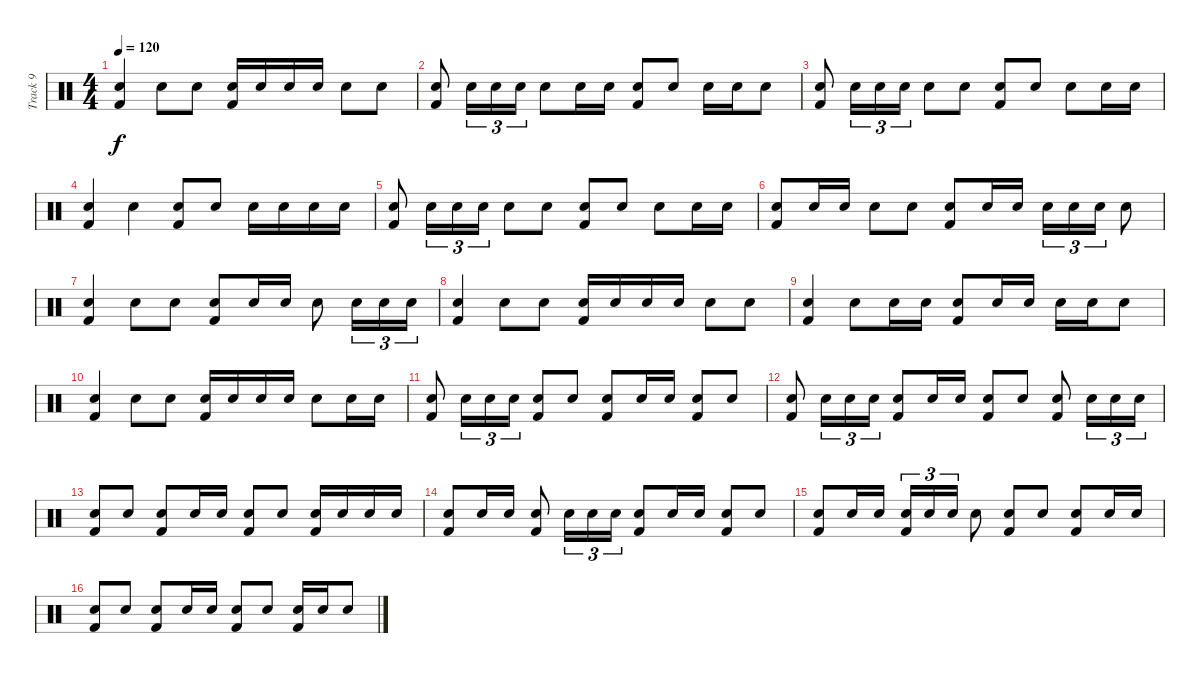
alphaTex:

\track ("Track 9" "Track 9") {instrument percussion}
\staff {score}
\articulation defaults
\ts (4 4)
\tempo 120
\clef neutral
\ks c
("Electric Snare (hit)" "Kick (hit) 2").4{dy f} "Electric Snare (hit)".8 "Electric Snare (hit)".8 ("Electric Snare (hit)" "Kick (hit) 2").16 "Electric Snare (hit)".16 "Electric Snare (hit)".16 "Electric Snare (hit)".16 "Electric Snare (hit)".8 "Electric Snare (hit)".8 |
("Electric Snare (hit)" "Kick (hit) 2").8 "Electric Snare (hit)".16{tu (3 2)} "Electric Snare (hit)".16{tu (3 2)} "Electric Snare (hit)".16{tu (3 2)} "Electric Snare (hit)".8 "Electric Snare (hit)".16 "Electric Snare (hit)".16 ("Electric Snare (hit)" "Kick (hit) 2").8 "Electric Snare (hit)".8 "Electric Snare (hit)".16 "Electric Snare (hit)".16 "Electric Snare (hit)".8 |
("Electric Snare (hit)" "Kick (hit) 2").8 "Electric Snare (hit)".16{tu (3 2)} "Electric Snare (hit)".16{tu (3 2)} "Electric Snare (hit)".16{tu (3 2)} "Electric Snare (hit)".8 "Electric Snare (hit)".8 ("Electric Snare (hit)" "Kick (hit) 2").8 "Electric Snare (hit)".8 "Electric Snare (hit)".8 "Electric Snare (hit)".16 "Electric Snare (hit)".16 |
("Electric Snare (hit)" "Kick (hit) 2").4 "Electric Snare (hit)".4 ("Electric Snare (hit)" "Kick (hit) 2").8 "Electric Snare (hit)".8 "Electric Snare (hit)".16 "Electric Snare (hit)".16 "Electric Snare (hit)".16 "Electric Snare (hit)".16 |
("Electric Snare (hit)" "Kick (hit) 2").8 "Electric Snare (hit)".16{tu (3 2)} "Electric Snare (hit)".16{tu (3 2)} "Electric Snare (hit)".16{tu (3 2)} "Electric Snare (hit)".8 "Electric Snare (hit)".8 ("Electric Snare (hit)" "Kick (hit) 2").8 "Electric Snare (hit)".8 "Electric Snare (hit)".8 "Electric Snare (hit)".16 "Electric Snare (hit)".16 |
("Electric Snare (hit)" "Kick (hit) 2").8 "Electric Snare (hit)".16 "Electric Snare (hit)".16 "Electric Snare (hit)".8 "Electric Snare (hit)".8 ("Electric Snare (hit)" "Kick (hit) 2").8 "Electric Snare (hit)".16 "Electric Snare (hit)".16 "Electric Snare (hit)".16{tu (3 2)} "Electric Snare (hit)".16{tu (3 2)} "Electric Snare (hit)".16{tu (3 2)} "Electric Snare (hit)".8 |
("Electric Snare (hit)" "Kick (hit) 2").4 "Electric Snare (hit)".8 "Electric Snare (hit)".8 ("Electric Snare (hit)" "Kick (hit) 2").8 "Electric Snare (hit)".16 "Electric Snare (hit)".16 "Electric Snare (hit)".8 "Electric Snare (hit)".16{tu (3 2)} "Electric Snare (hit)".16{tu (3 2)} "Electric Snare (hit)".16{tu (3 2)} |
("Electric Snare (hit)" "Kick (hit) 2").4 "Electric Snare (hit)".8 "Electric Snare (hit)".8 ("Electric Snare (hit)" "Kick (hit) 2").16 "Electric Snare (hit)".16 "Electric Snare (hit)".16 "Electric Snare (hit)".16 "Electric Snare (hit)".8 "Electric Snare (hit)".8 |
("Electric Snare (hit)" "Kick (hit) 2").4 "Electric Snare (hit)".8 "Electric Snare (hit)".16 "Electric Snare (hit)".16 ("Electric Snare (hit)" "Kick (hit) 2").8 "Electric Snare (hit)".16 "Electric Snare (hit)".16 "Electric Snare (hit)".16 "Electric Snare (hit)".16 "Electric Snare (hit)".8 |
("Electric Snare (hit)" "Kick (hit) 2").4 "Electric Snare (hit)".8 "Electric Snare (hit)".8 ("Electric Snare (hit)" "Kick (hit) 2").16 "Electric Snare (hit)".16 "Electric Snare (hit)".16 "Electric Snare (hit)".16 "Electric Snare (hit)".8 "Electric Snare (hit)".16 "Electric Snare (hit)".16 |
("Electric Snare (hit)" "Kick (hit) 2").8 "Electric Snare (hit)".16{tu (3 2)} "Electric Snare (hit)".16{tu (3 2)} "Electric Snare (hit)".16{tu (3 2)} ("Electric Snare (hit)" "Kick (hit) 2").8 "Electric Snare (hit)".8 ("Electric Snare (hit)" "Kick (hit) 2").8 "Electric Snare (hit)".16 "Electric Snare (hit)".16 ("Electric Snare (hit)" "Kick (hit) 2").8 "Electric Snare (hit)".8 |
("Electric Snare (hit)" "Kick (hit) 2").8 "Electric Snare (hit)".16{tu (3 2)} "Electric Snare (hit)".16{tu (3 2)} "Electric Snare (hit)".16{tu (3 2)} ("Electric Snare (hit)" "Kick (hit) 2").8 "Electric Snare (hit)".16 "Electric Snare (hit)".16 ("Electric Snare (hit)" "Kick (hit) 2").8 "Electric Snare (hit)".8 ("Electric Snare (hit)" "Kick (hit) 2").8 "Electric Snare (hit)".16{tu (3 2)} "Electric Snare (hit)".16{tu (3 2)} "Electric Snare (hit)".16{tu (3 2)} |
("Electric Snare (hit)" "Kick (hit) 2").8 "Electric Snare (hit)".8 ("Electric Snare (hit)" "Kick (hit) 2").8 "Electric Snare (hit)".16 "Electric Snare (hit)".16 ("Electric Snare (hit)" "Kick (hit) 2").8 "Electric Snare (hit)".8 ("Electric Snare (hit)" "Kick (hit) 2").16 "Electric Snare (hit)".16 "Electric Snare (hit)".16 "Electric Snare (hit)".16 |
("Electric Snare (hit)" "Kick (hit) 2").8 "Electric Snare (hit)".16 "Electric Snare (hit)".16 ("Electric Snare (hit)" "Kick (hit) 2").8 "Electric Snare (hit)".16{tu (3 2)} "Electric Snare (hit)".16{tu (3 2)} "Electric Snare (hit)".16{tu (3 2)} ("Electric Snare (hit)" "Kick (hit) 2").8 "Electric Snare (hit)".16 "Electric Snare (hit)".16 ("Electric Snare (hit)" "Kick (hit) 2").8 "Electric Snare (hit)".8 |
("Electric Snare (hit)" "Kick (hit) 2").8 "Electric Snare (hit)".16 "Electric Snare (hit)".16 ("Electric Snare (hit)" "Kick (hit) 2").16{tu (3 2)} "Electric Snare (hit)".16{tu (3 2)} "Electric Snare (hit)".16{tu (3 2)} "Electric Snare (hit)".8 ("Electric Snare (hit)" "Kick (hit) 2").8 "Electric Snare (hit)".8 ("Electric Snare (hit)" "Kick (hit) 2").8 "Electric Snare (hit)".16 "Electric Snare (hit)".16 |
("Electric Snare (hit)" "Kick (hit) 2").8 "Electric Snare (hit)".8 ("Electric Snare (hit)" "Kick (hit) 2").8 "Electric Snare (hit)".16 "Electric Snare (hit)".16 ("Electric Snare (hit)" "Kick (hit) 2").8 "Electric Snare (hit)".8 ("Electric Snare (hit)" "Kick (hit) 2").16 "Electric Snare (hit)".16 "Electric Snare (hit)".8
